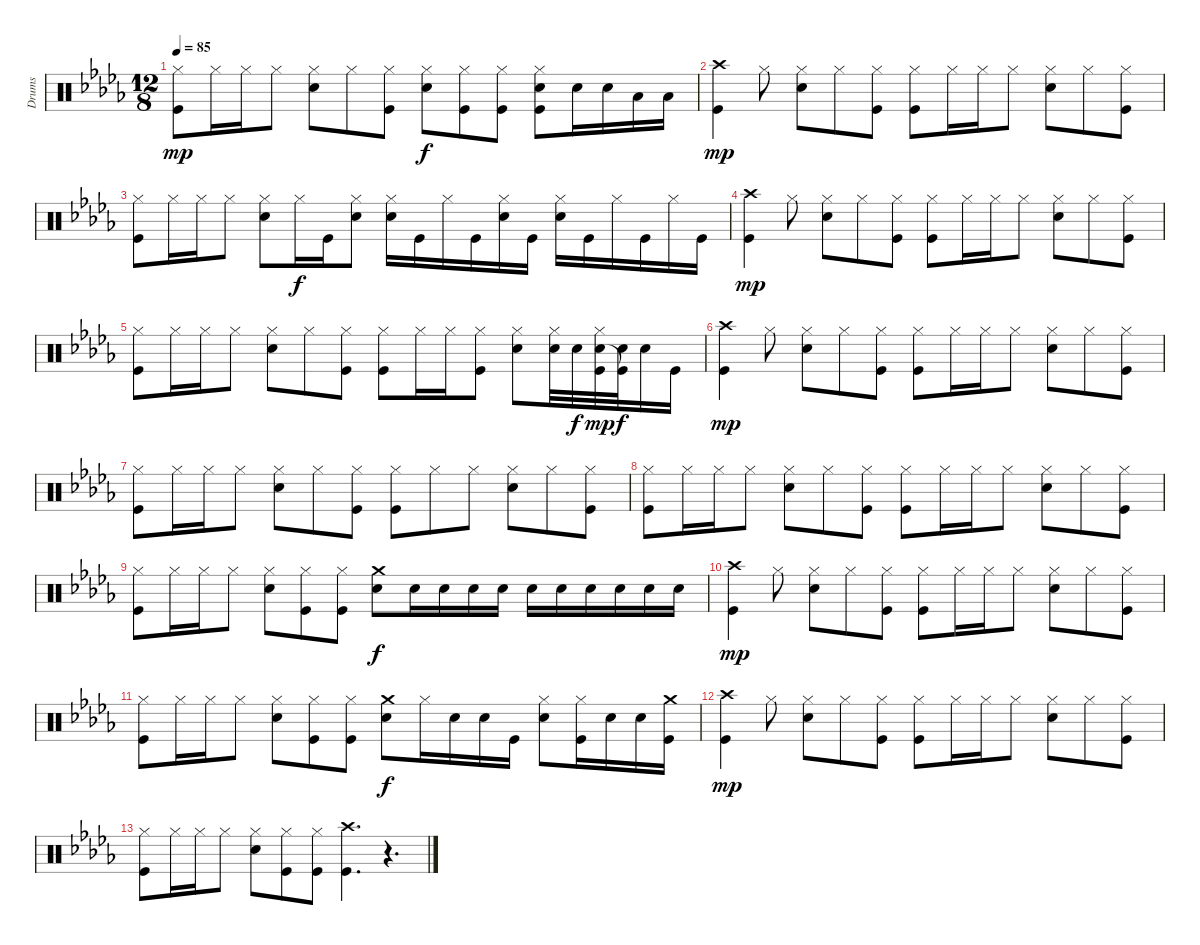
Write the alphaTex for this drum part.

\track ("Drums" "Drums") {instrument percussion}
\staff {score}
\articulation defaults
\ts (12 8)
\tempo 85
\clef neutral
\ks bbminor
("Hi-Hat (closed)" "Kick (hit)").8{dy mp} "Hi-Hat (closed)".16 "Hi-Hat (closed)".16 "Hi-Hat (closed)".8 ("Hi-Hat (closed)" "Snare (hit) 2").8 "Hi-Hat (closed)".8 ("Hi-Hat (closed)" "Kick (hit)").8 ("Hi-Hat (closed)" "Snare (hit) 2").8{dy f} ("Hi-Hat (closed)" "Kick (hit)").8 ("Hi-Hat (closed)" "Kick (hit)").8 ("Hi-Hat (closed)" "Snare (hit) 2" "Kick (hit)").8 "Snare (hit) 2".16 "Snare (hit) 2".16 "Low Tom (hit)".16 "Low Tom (hit)".16 |
("Crash high (hit)" "Kick (hit)").4{dy mp} "Hi-Hat (closed)".8 ("Hi-Hat (closed)" "Snare (hit) 2").8 "Hi-Hat (closed)".8 ("Hi-Hat (closed)" "Kick (hit)").8 ("Hi-Hat (closed)" "Kick (hit)").8 "Hi-Hat (closed)".16 "Hi-Hat (closed)".16 "Hi-Hat (closed)".8 ("Hi-Hat (closed)" "Snare (hit) 2").8 "Hi-Hat (closed)".8 ("Hi-Hat (closed)" "Kick (hit)").8 |
("Hi-Hat (closed)" "Kick (hit)").8 "Hi-Hat (closed)".16 "Hi-Hat (closed)".16 "Hi-Hat (closed)".8 ("Hi-Hat (closed)" "Snare (hit) 2").8 "Hi-Hat (closed)".16{dy f} "Kick (hit)".16 ("Hi-Hat (closed)" "Snare (hit) 2").8 ("Hi-Hat (closed)" "Snare (hit) 2").16 "Kick (hit)".16 "Hi-Hat (closed)".16 "Kick (hit)".16 ("Hi-Hat (closed)" "Snare (hit) 2").16 "Kick (hit)".16 ("Hi-Hat (closed)" "Snare (hit) 2").16 "Kick (hit)".16 "Hi-Hat (closed)".16 "Kick (hit)".16 "Hi-Hat (closed)".16 "Kick (hit)".16 |
("Crash high (hit)" "Kick (hit)").4{dy mp} "Hi-Hat (closed)".8 ("Hi-Hat (closed)" "Snare (hit) 2").8 "Hi-Hat (closed)".8 ("Hi-Hat (closed)" "Kick (hit)").8 ("Hi-Hat (closed)" "Kick (hit)").8 "Hi-Hat (closed)".16 "Hi-Hat (closed)".16 "Hi-Hat (closed)".8 ("Hi-Hat (closed)" "Snare (hit) 2").8 "Hi-Hat (closed)".8 ("Hi-Hat (closed)" "Kick (hit)").8 |
("Hi-Hat (closed)" "Kick (hit)").8 "Hi-Hat (closed)".16 "Hi-Hat (closed)".16 "Hi-Hat (closed)".8 ("Hi-Hat (closed)" "Snare (hit) 2").8 "Hi-Hat (closed)".8 ("Hi-Hat (closed)" "Kick (hit)").8 ("Hi-Hat (closed)" "Kick (hit)").8 "Hi-Hat (closed)".16 "Hi-Hat (closed)".16 ("Hi-Hat (closed)" "Kick (hit)").8 ("Hi-Hat (closed)" "Snare (hit) 2").8 ("Hi-Hat (closed)" "Snare (hit) 2").32 "Snare (hit) 2".32{dy f} ("Hi-Hat (closed)" "Snare (hit) 2" "Kick (hit)").32{dy mp} ("Snare (hit) 2" "Kick (hit)"{t}).32{dy f} "Snare (hit) 2".16 "Kick (hit)".16 |
("Crash high (hit)" "Kick (hit)").4{dy mp} "Hi-Hat (closed)".8 ("Hi-Hat (closed)" "Snare (hit) 2").8 "Hi-Hat (closed)".8 ("Hi-Hat (closed)" "Kick (hit)").8 ("Hi-Hat (closed)" "Kick (hit)").8 "Hi-Hat (closed)".16 "Hi-Hat (closed)".16 "Hi-Hat (closed)".8 ("Hi-Hat (closed)" "Snare (hit) 2").8 "Hi-Hat (closed)".8 ("Hi-Hat (closed)" "Kick (hit)").8 |
("Hi-Hat (closed)" "Kick (hit)").8 "Hi-Hat (closed)".16 "Hi-Hat (closed)".16 "Hi-Hat (closed)".8 ("Hi-Hat (closed)" "Snare (hit) 2").8 "Hi-Hat (closed)".8 ("Hi-Hat (closed)" "Kick (hit)").8 ("Hi-Hat (closed)" "Kick (hit)").8 "Hi-Hat (closed)".8 "Hi-Hat (closed)".8 ("Hi-Hat (closed)" "Snare (hit) 2").8 "Hi-Hat (closed)".8 ("Hi-Hat (closed)" "Kick (hit)").8 |
("Hi-Hat (closed)" "Kick (hit)").8 "Hi-Hat (closed)".16 "Hi-Hat (closed)".16 "Hi-Hat (closed)".8 ("Hi-Hat (closed)" "Snare (hit) 2").8 "Hi-Hat (closed)".8 ("Hi-Hat (closed)" "Kick (hit)").8 ("Hi-Hat (closed)" "Kick (hit)").8 "Hi-Hat (closed)".16 "Hi-Hat (closed)".16 "Hi-Hat (closed)".8 ("Hi-Hat (closed)" "Snare (hit) 2").8 "Hi-Hat (closed)".8 ("Hi-Hat (closed)" "Kick (hit)").8 |
("Hi-Hat (closed)" "Kick (hit)").8 "Hi-Hat (closed)".16 "Hi-Hat (closed)".16 "Hi-Hat (closed)".8 ("Hi-Hat (closed)" "Snare (hit) 2").8 ("Hi-Hat (closed)" "Kick (hit)").8 ("Hi-Hat (closed)" "Kick (hit)").8 ("Crash medium (hit)" "Snare (hit) 2").8{dy f} "Snare (hit) 2".16 "Snare (hit) 2".16 "Snare (hit) 2".16 "Snare (hit) 2".16 "Snare (hit) 2".16 "Snare (hit) 2".16 "Snare (hit) 2".16 "Snare (hit) 2".16 "Snare (hit) 2".16 "Snare (hit) 2".16 |
("Crash high (hit)" "Kick (hit)").4{dy mp} "Hi-Hat (closed)".8 ("Hi-Hat (closed)" "Snare (hit) 2").8 "Hi-Hat (closed)".8 ("Hi-Hat (closed)" "Kick (hit)").8 ("Hi-Hat (closed)" "Kick (hit)").8 "Hi-Hat (closed)".16 "Hi-Hat (closed)".16 "Hi-Hat (closed)".8 ("Hi-Hat (closed)" "Snare (hit) 2").8 "Hi-Hat (closed)".8 ("Hi-Hat (closed)" "Kick (hit)").8 |
("Hi-Hat (closed)" "Kick (hit)").8 "Hi-Hat (closed)".16 "Hi-Hat (closed)".16 "Hi-Hat (closed)".8 ("Hi-Hat (closed)" "Snare (hit) 2").8 ("Hi-Hat (closed)" "Kick (hit)").8 ("Hi-Hat (closed)" "Kick (hit)").8 ("Crash medium (hit)" "Snare (hit) 2").8{dy f} "Hi-Hat (closed)".16 "Snare (hit) 2".16 "Snare (hit) 2".16 "Kick (hit)".16 ("Hi-Hat (closed)" "Snare (hit) 2").8 ("Hi-Hat (closed)" "Kick (hit)").16 "Snare (hit) 2".16 "Snare (hit) 2".16 ("Crash medium (hit)" "Kick (hit)").16 |
("Crash high (hit)" "Kick (hit)").4{dy mp} "Hi-Hat (closed)".8 ("Hi-Hat (closed)" "Snare (hit) 2").8 "Hi-Hat (closed)".8 ("Hi-Hat (closed)" "Kick (hit)").8 ("Hi-Hat (closed)" "Kick (hit)").8 "Hi-Hat (closed)".16 "Hi-Hat (closed)".16 "Hi-Hat (closed)".8 ("Hi-Hat (closed)" "Snare (hit) 2").8 "Hi-Hat (closed)".8 ("Hi-Hat (closed)" "Kick (hit)").8 |
("Hi-Hat (closed)" "Kick (hit)").8 "Hi-Hat (closed)".16 "Hi-Hat (closed)".16 "Hi-Hat (closed)".8 ("Hi-Hat (closed)" "Snare (hit) 2").8 ("Hi-Hat (closed)" "Kick (hit)").8 ("Hi-Hat (closed)" "Kick (hit)").8 ("Crash high (hit)" "Kick (hit)").4{d} r.4{d}
